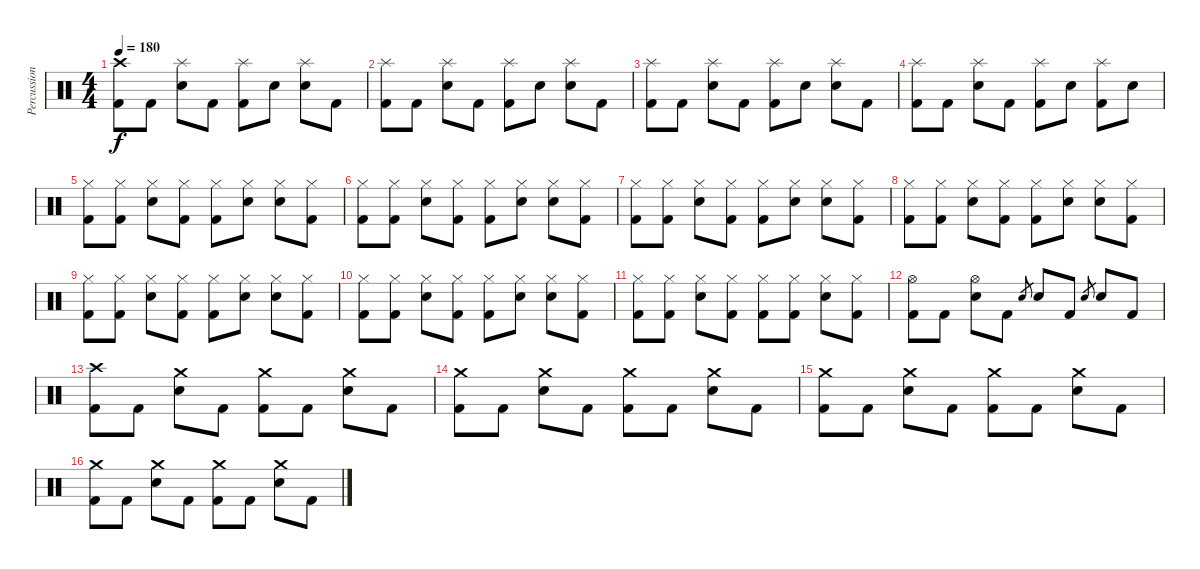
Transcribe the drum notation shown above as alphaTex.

\track ("Percussion" "Percussion") {instrument percussion}
\staff {score}
\articulation defaults
\ts (4 4)
\tempo 180
\clef neutral
\ks c
("Crash high (hit)" "Kick (hit) 2").8{dy f} "Kick (hit) 2".8 ("Splash (hit)" "Electric Snare (hit)").8 "Kick (hit) 2".8 ("Splash (hit)" "Kick (hit) 2").8 "Electric Snare (hit)".8 ("Splash (hit)" "Electric Snare (hit)").8 "Kick (hit) 2".8 |
("Splash (hit)" "Kick (hit) 2").8 "Kick (hit) 2".8 ("Splash (hit)" "Electric Snare (hit)").8 "Kick (hit) 2".8 ("Splash (hit)" "Kick (hit) 2").8 "Electric Snare (hit)".8 ("Splash (hit)" "Electric Snare (hit)").8 "Kick (hit) 2".8 |
("Splash (hit)" "Kick (hit) 2").8 "Kick (hit) 2".8 ("Splash (hit)" "Electric Snare (hit)").8 "Kick (hit) 2".8 ("Splash (hit)" "Kick (hit) 2").8 "Electric Snare (hit)".8 ("Splash (hit)" "Electric Snare (hit)").8 "Kick (hit) 2".8 |
("Splash (hit)" "Kick (hit) 2").8 "Kick (hit) 2".8 ("Splash (hit)" "Electric Snare (hit)").8 "Kick (hit) 2".8 ("Splash (hit)" "Kick (hit) 2").8 "Electric Snare (hit)".8 ("Splash (hit)" "Kick (hit) 2").8 "Electric Snare (hit)".8 |
("Hi-Hat (closed)" "Kick (hit) 2").8 ("Hi-Hat (closed)" "Kick (hit) 2").8 ("Hi-Hat (closed)" "Electric Snare (hit)").8 ("Hi-Hat (closed)" "Kick (hit) 2").8 ("Hi-Hat (closed)" "Kick (hit) 2").8 ("Hi-Hat (closed)" "Electric Snare (hit)").8 ("Hi-Hat (closed)" "Electric Snare (hit)").8 ("Hi-Hat (closed)" "Kick (hit) 2").8 |
("Hi-Hat (closed)" "Kick (hit) 2").8 ("Hi-Hat (closed)" "Kick (hit) 2").8 ("Hi-Hat (closed)" "Electric Snare (hit)").8 ("Hi-Hat (closed)" "Kick (hit) 2").8 ("Hi-Hat (closed)" "Kick (hit) 2").8 ("Hi-Hat (closed)" "Electric Snare (hit)").8 ("Hi-Hat (closed)" "Electric Snare (hit)").8 ("Hi-Hat (closed)" "Kick (hit) 2").8 |
("Hi-Hat (closed)" "Kick (hit) 2").8 ("Hi-Hat (closed)" "Kick (hit) 2").8 ("Hi-Hat (closed)" "Electric Snare (hit)").8 ("Hi-Hat (closed)" "Kick (hit) 2").8 ("Hi-Hat (closed)" "Kick (hit) 2").8 ("Hi-Hat (closed)" "Electric Snare (hit)").8 ("Hi-Hat (closed)" "Electric Snare (hit)").8 ("Hi-Hat (closed)" "Kick (hit) 2").8 |
("Hi-Hat (closed)" "Kick (hit) 2").8 ("Hi-Hat (closed)" "Kick (hit) 2").8 ("Hi-Hat (closed)" "Electric Snare (hit)").8 ("Hi-Hat (closed)" "Kick (hit) 2").8 ("Hi-Hat (closed)" "Kick (hit) 2").8 ("Hi-Hat (closed)" "Electric Snare (hit)").8 ("Hi-Hat (closed)" "Electric Snare (hit)").8 ("Hi-Hat (closed)" "Kick (hit) 2").8 |
("Hi-Hat (closed)" "Kick (hit) 2").8 ("Hi-Hat (closed)" "Kick (hit) 2").8 ("Hi-Hat (closed)" "Electric Snare (hit)").8 ("Hi-Hat (closed)" "Kick (hit) 2").8 ("Hi-Hat (closed)" "Kick (hit) 2").8 ("Hi-Hat (closed)" "Electric Snare (hit)").8 ("Hi-Hat (closed)" "Electric Snare (hit)").8 ("Hi-Hat (closed)" "Kick (hit) 2").8 |
("Hi-Hat (closed)" "Kick (hit) 2").8 ("Hi-Hat (closed)" "Kick (hit) 2").8 ("Hi-Hat (closed)" "Electric Snare (hit)").8 ("Hi-Hat (closed)" "Kick (hit) 2").8 ("Hi-Hat (closed)" "Kick (hit) 2").8 ("Hi-Hat (closed)" "Electric Snare (hit)").8 ("Hi-Hat (closed)" "Electric Snare (hit)").8 ("Hi-Hat (closed)" "Kick (hit) 2").8 |
("Hi-Hat (closed)" "Kick (hit) 2").8 ("Hi-Hat (closed)" "Kick (hit) 2").8 ("Hi-Hat (closed)" "Electric Snare (hit)").8 ("Hi-Hat (closed)" "Kick (hit) 2").8 ("Hi-Hat (closed)" "Kick (hit) 2").8 ("Hi-Hat (closed)" "Kick (hit) 2").8 ("Hi-Hat (closed)" "Electric Snare (hit)").8 ("Hi-Hat (closed)" "Kick (hit) 2").8 |
("Hi-Hat (open)" "Kick (hit) 2").8 "Kick (hit) 2".8 ("Hi-Hat (open)" "Electric Snare (hit)").8 "Kick (hit) 2".8 "Electric Snare (hit)".8{gr} "Electric Snare (hit)".8 "Kick (hit) 2".8 "Electric Snare (hit)".8{gr} "Electric Snare (hit)".8 "Kick (hit) 2".8 |
("Crash high (hit)" "Kick (hit) 2").8 "Kick (hit) 2".8 ("Crash medium (hit)" "Electric Snare (hit)").8 "Kick (hit) 2".8 ("Crash medium (hit)" "Kick (hit) 2").8 "Kick (hit) 2".8 ("Crash medium (hit)" "Electric Snare (hit)").8 "Kick (hit) 2".8 |
("Crash medium (hit)" "Kick (hit) 2").8 "Kick (hit) 2".8 ("Crash medium (hit)" "Electric Snare (hit)").8 "Kick (hit) 2".8 ("Crash medium (hit)" "Kick (hit) 2").8 "Kick (hit) 2".8 ("Crash medium (hit)" "Electric Snare (hit)").8 "Kick (hit) 2".8 |
("Crash medium (hit)" "Kick (hit) 2").8 "Kick (hit) 2".8 ("Crash medium (hit)" "Electric Snare (hit)").8 "Kick (hit) 2".8 ("Crash medium (hit)" "Kick (hit) 2").8 "Kick (hit) 2".8 ("Crash medium (hit)" "Electric Snare (hit)").8 "Kick (hit) 2".8 |
("Crash medium (hit)" "Kick (hit) 2").8 "Kick (hit) 2".8 ("Crash medium (hit)" "Electric Snare (hit)").8 "Kick (hit) 2".8 ("Crash medium (hit)" "Kick (hit) 2").8 "Kick (hit) 2".8 ("Crash medium (hit)" "Electric Snare (hit)").8 "Kick (hit) 2".8
